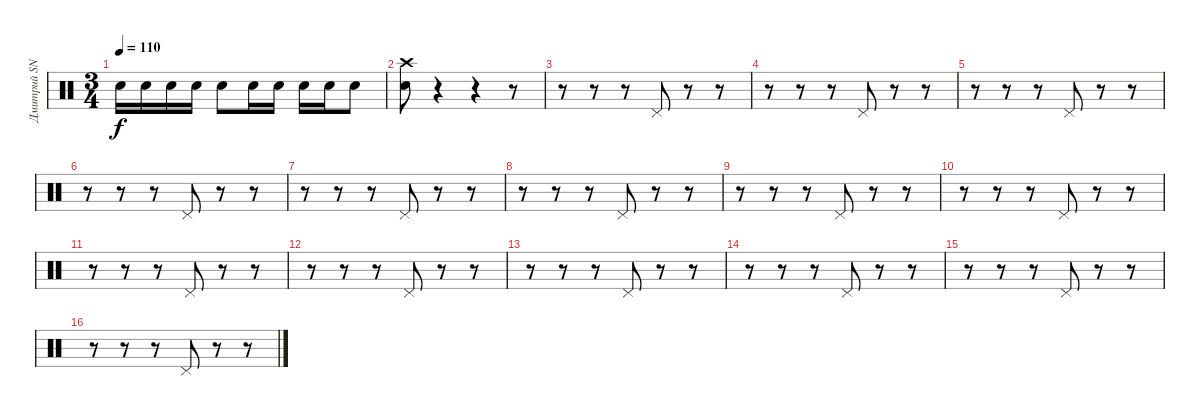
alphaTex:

\track ("Дмитрий SNAKE" "Дмитрий SN") {instrument percussion}
\staff {score}
\articulation defaults
\ts (3 4)
\tempo 110
\clef neutral
\ks c "Snare (hit) 2".16{dy f} "Snare (hit) 2".16 "Snare (hit) 2".16 "Snare (hit) 2".16 "Snare (hit) 2".8 "Snare (hit) 2".16 "Snare (hit) 2".16 "Snare (hit) 2".16 "Snare (hit) 2".16 "Snare (hit) 2".8
|
("Crash high (hit)" "Snare (hit) 2").8 r.4 r.4 r.8 |
r.8 r.8 r.8 "Pedal Hi-Hat (hit)".8 r.8 r.8 |
r.8 r.8 r.8 "Pedal Hi-Hat (hit)".8 r.8 r.8 |
r.8 r.8 r.8 "Pedal Hi-Hat (hit)".8 r.8 r.8 |
r.8 r.8 r.8 "Pedal Hi-Hat (hit)".8 r.8 r.8 |
r.8 r.8 r.8 "Pedal Hi-Hat (hit)".8 r.8 r.8 |
r.8 r.8 r.8 "Pedal Hi-Hat (hit)".8 r.8 r.8 |
r.8 r.8 r.8 "Pedal Hi-Hat (hit)".8 r.8 r.8 |
r.8 r.8 r.8 "Pedal Hi-Hat (hit)".8 r.8 r.8 |
r.8 r.8 r.8 "Pedal Hi-Hat (hit)".8 r.8 r.8 |
r.8 r.8 r.8 "Pedal Hi-Hat (hit)".8 r.8 r.8 |
r.8 r.8 r.8 "Pedal Hi-Hat (hit)".8 r.8 r.8 |
r.8 r.8 r.8 "Pedal Hi-Hat (hit)".8 r.8 r.8 |
r.8 r.8 r.8 "Pedal Hi-Hat (hit)".8 r.8 r.8 |
r.8 r.8 r.8 "Pedal Hi-Hat (hit)".8 r.8 r.8
